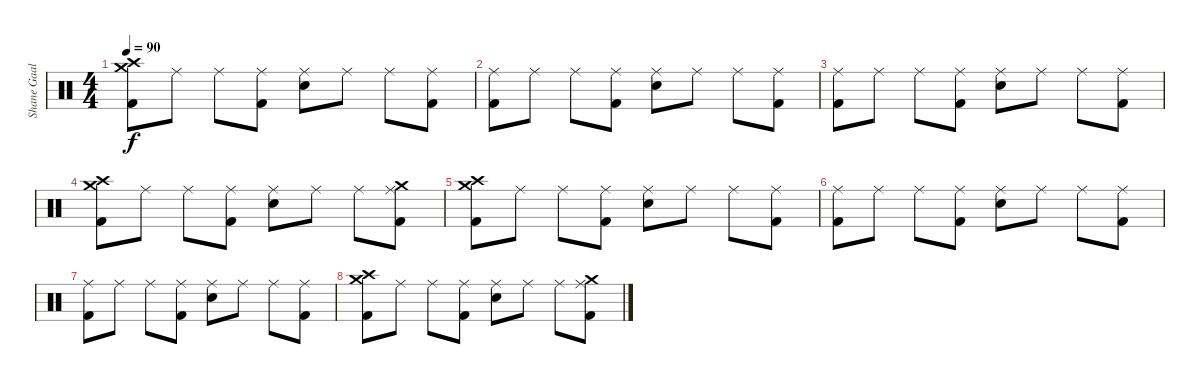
\track ("Shane Gaalaas" "Shane Gaal") {instrument percussion}
\staff {score}
\articulation defaults
\ts (4 4)
\tempo 90
\clef neutral
\ks c
("Crash high (hit)" "Crash medium (hit)" "Kick (hit) 2").8{dy f} "Ride (middle)".8 "Ride (middle)".8 ("Ride (middle)" "Kick (hit) 2").8 ("Ride (middle)" "Electric Snare (hit)").8 "Ride (middle)".8 "Ride (middle)".8 ("Ride (middle)" "Kick (hit) 2").8 |
("Ride (middle)" "Kick (hit) 2").8 "Ride (middle)".8 "Ride (middle)".8 ("Ride (middle)" "Kick (hit) 2").8 ("Ride (middle)" "Electric Snare (hit)").8 "Ride (middle)".8 "Ride (middle)".8 ("Ride (middle)" "Kick (hit) 2").8 |
("Ride (middle)" "Kick (hit) 2").8 "Ride (middle)".8 "Ride (middle)".8 ("Ride (middle)" "Kick (hit) 2").8 ("Ride (middle)" "Electric Snare (hit)").8 "Ride (middle)".8 "Ride (middle)".8 ("Ride (middle)" "Kick (hit) 2").8 |
("Crash high (hit)" "Crash medium (hit)" "Kick (hit) 2").8 "Ride (middle)".8 "Ride (middle)".8 ("Ride (middle)" "Kick (hit) 2").8 ("Ride (middle)" "Electric Snare (hit)").8 "Ride (middle)".8 "Ride (middle)".8 ("Crash medium (hit)" "Ride (middle)" "Kick (hit) 2").8 |
("Crash high (hit)" "Crash medium (hit)" "Kick (hit) 2").8 "Ride (middle)".8 "Ride (middle)".8 ("Ride (middle)" "Kick (hit) 2").8 ("Ride (middle)" "Electric Snare (hit)").8 "Ride (middle)".8 "Ride (middle)".8 ("Ride (middle)" "Kick (hit) 2").8 |
("Ride (middle)" "Kick (hit) 2").8 "Ride (middle)".8 "Ride (middle)".8 ("Ride (middle)" "Kick (hit) 2").8 ("Ride (middle)" "Electric Snare (hit)").8 "Ride (middle)".8 "Ride (middle)".8 ("Ride (middle)" "Kick (hit) 2").8 |
("Ride (middle)" "Kick (hit) 2").8 "Ride (middle)".8 "Ride (middle)".8 ("Ride (middle)" "Kick (hit) 2").8 ("Ride (middle)" "Electric Snare (hit)").8 "Ride (middle)".8 "Ride (middle)".8 ("Ride (middle)" "Kick (hit) 2").8 |
("Crash high (hit)" "Crash medium (hit)" "Kick (hit) 2").8 "Ride (middle)".8 "Ride (middle)".8 ("Ride (middle)" "Kick (hit) 2").8 ("Ride (middle)" "Electric Snare (hit)").8 "Ride (middle)".8 "Ride (middle)".8 ("Crash medium (hit)" "Ride (middle)" "Kick (hit) 2").8
